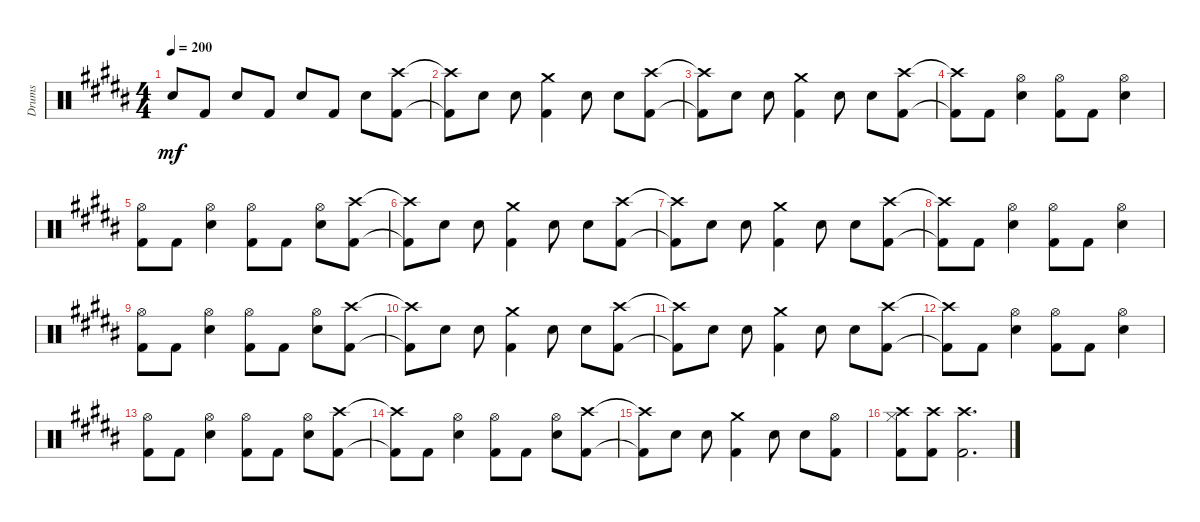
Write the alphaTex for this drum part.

\track ("Drums" "Drums") {instrument percussion}
\staff {score}
\articulation defaults
\ts (4 4)
\tempo 200
\clef neutral
\ks b "Snare (hit) 2".8{dy mf} "Kick (hit) 2".8 "Snare (hit) 2".8 "Kick (hit) 2".8 "Snare (hit) 2".8 "Kick (hit) 2".8 "Snare (hit) 2".8
("Kick (hit) 2" "Crash high (hit)").8 |
("Kick (hit) 2"{t} "Crash high (hit)"{t}).8 "Snare (hit) 2".8 "Snare (hit) 2".8 ("Kick (hit) 2" "Crash medium (hit)").4 "Snare (hit) 2".8 "Snare (hit) 2".8 ("Kick (hit) 2" "Crash high (hit)").8 |
("Kick (hit) 2"{t} "Crash high (hit)"{t}).8 "Snare (hit) 2".8 "Snare (hit) 2".8 ("Kick (hit) 2" "Crash medium (hit)").4 "Snare (hit) 2".8 "Snare (hit) 2".8 ("Kick (hit) 2" "Crash high (hit)").8 |
("Kick (hit) 2"{t} "Crash high (hit)"{t}).8 "Kick (hit) 2".8 ("Snare (hit) 2" "Hi-Hat (open)").4 ("Kick (hit) 2" "Hi-Hat (open)").8 "Kick (hit) 2".8 ("Snare (hit) 2" "Hi-Hat (open)").4 |
("Kick (hit) 2" "Hi-Hat (open)").8 "Kick (hit) 2".8 ("Snare (hit) 2" "Hi-Hat (open)").4 ("Kick (hit) 2" "Hi-Hat (open)").8 "Kick (hit) 2".8 ("Snare (hit) 2" "Hi-Hat (open)").8 ("Kick (hit) 2" "Crash high (hit)").8 |
("Kick (hit) 2"{t} "Crash high (hit)"{t}).8 "Snare (hit) 2".8 "Snare (hit) 2".8 ("Kick (hit) 2" "Crash medium (hit)").4 "Snare (hit) 2".8 "Snare (hit) 2".8 ("Kick (hit) 2" "Crash high (hit)").8 |
("Kick (hit) 2"{t} "Crash high (hit)"{t}).8 "Snare (hit) 2".8 "Snare (hit) 2".8 ("Kick (hit) 2" "Crash medium (hit)").4 "Snare (hit) 2".8 "Snare (hit) 2".8 ("Kick (hit) 2" "Crash high (hit)").8 |
("Kick (hit) 2"{t} "Crash high (hit)"{t}).8 "Kick (hit) 2".8 ("Snare (hit) 2" "Hi-Hat (open)").4 ("Kick (hit) 2" "Hi-Hat (open)").8 "Kick (hit) 2".8 ("Snare (hit) 2" "Hi-Hat (open)").4 |
("Kick (hit) 2" "Hi-Hat (open)").8 "Kick (hit) 2".8 ("Snare (hit) 2" "Hi-Hat (open)").4 ("Kick (hit) 2" "Hi-Hat (open)").8 "Kick (hit) 2".8 ("Snare (hit) 2" "Hi-Hat (open)").8 ("Kick (hit) 2" "Crash high (hit)").8 |
("Kick (hit) 2"{t} "Crash high (hit)"{t}).8 "Snare (hit) 2".8 "Snare (hit) 2".8 ("Kick (hit) 2" "Crash medium (hit)").4 "Snare (hit) 2".8 "Snare (hit) 2".8 ("Kick (hit) 2" "Crash high (hit)").8 |
("Kick (hit) 2"{t} "Crash high (hit)"{t}).8 "Snare (hit) 2".8 "Snare (hit) 2".8 ("Kick (hit) 2" "Crash medium (hit)").4 "Snare (hit) 2".8 "Snare (hit) 2".8 ("Kick (hit) 2" "Crash high (hit)").8 |
("Kick (hit) 2"{t} "Crash high (hit)"{t}).8 "Kick (hit) 2".8 ("Snare (hit) 2" "Hi-Hat (open)").4 ("Kick (hit) 2" "Hi-Hat (open)").8 "Kick (hit) 2".8 ("Snare (hit) 2" "Hi-Hat (open)").4 |
("Kick (hit) 2" "Hi-Hat (open)").8 "Kick (hit) 2".8 ("Snare (hit) 2" "Hi-Hat (open)").4 ("Kick (hit) 2" "Hi-Hat (open)").8 "Kick (hit) 2".8 ("Snare (hit) 2" "Hi-Hat (open)").8 ("Kick (hit) 2" "Crash high (hit)").8 |
("Kick (hit) 2"{t} "Crash high (hit)"{t}).8 "Kick (hit) 2".8 ("Snare (hit) 2" "Hi-Hat (open)").4 ("Kick (hit) 2" "Hi-Hat (open)").8 "Kick (hit) 2".8 ("Snare (hit) 2" "Hi-Hat (open)").8 ("Kick (hit) 2" "Crash high (hit)").8 |
("Kick (hit) 2"{t} "Crash high (hit)"{t}).8 "Snare (hit) 2".8 "Snare (hit) 2".8 ("Kick (hit) 2" "Crash medium (hit)").4 "Snare (hit) 2".8 "Snare (hit) 2".8 ("Kick (hit) 2" "Hi-Hat (open)").8 |
("Kick (hit) 2" "Hi-Hat (closed)" "Crash high (hit)").8 ("Kick (hit) 2" "Crash high (hit)").8 ("Kick (hit) 2" "Crash high (hit)").2{d}
